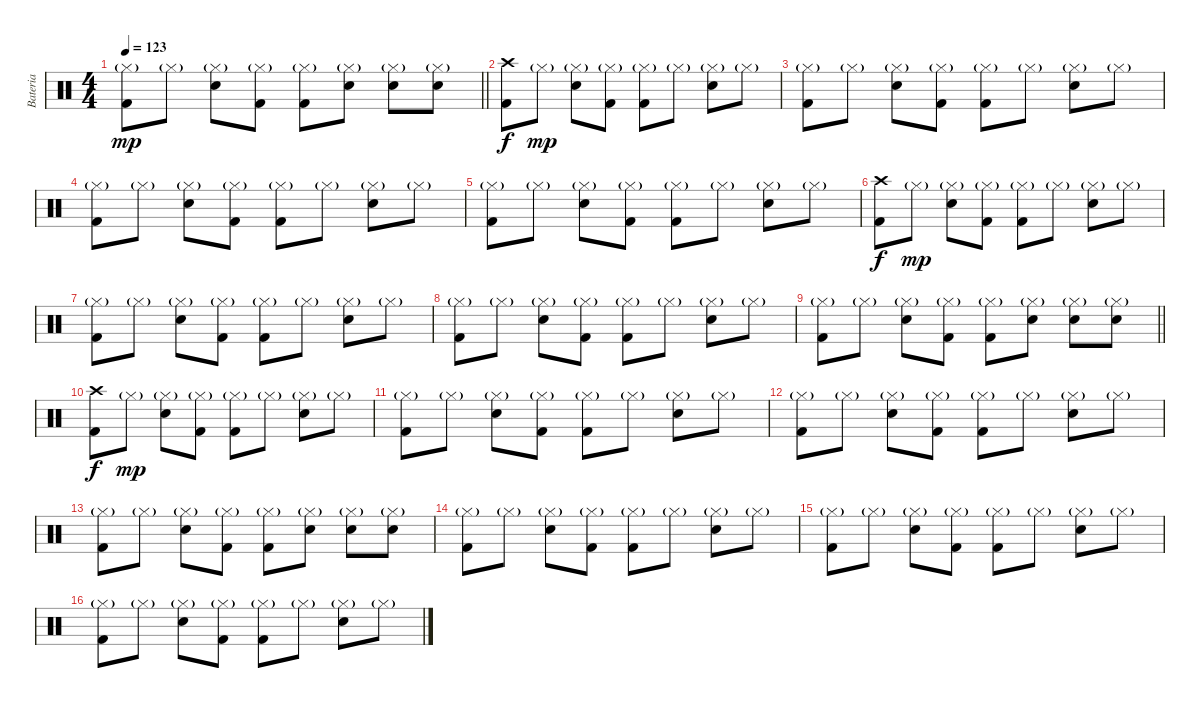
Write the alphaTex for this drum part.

\track ("Bateria" "Bateria") {instrument percussion}
\staff {score}
\articulation defaults
\ts (4 4)
\tempo 123
\clef neutral
\barLineRight lightlight
\ks c
("Hi-Hat (closed)"{g} "Kick (hit) 2").8{dy mp} "Hi-Hat (closed)"{g}.8 ("Hi-Hat (closed)"{g} "Snare (hit) 2").8 ("Hi-Hat (closed)"{g} "Kick (hit) 2").8 ("Hi-Hat (closed)"{g} "Kick (hit) 2").8 ("Hi-Hat (closed)"{g} "Snare (hit) 2").8 ("Hi-Hat (closed)"{g} "Snare (hit) 2").8 ("Hi-Hat (closed)"{g} "Snare (hit) 2").8 |
("Crash high (hit)" "Kick (hit) 2").8{dy f} "Hi-Hat (closed)"{g}.8{dy mp} ("Hi-Hat (closed)"{g} "Snare (hit) 2").8 ("Hi-Hat (closed)"{g} "Kick (hit) 2").8 ("Hi-Hat (closed)"{g} "Kick (hit) 2").8 "Hi-Hat (closed)"{g}.8 ("Hi-Hat (closed)"{g} "Snare (hit) 2").8 "Hi-Hat (closed)"{g}.8 |
("Hi-Hat (closed)"{g} "Kick (hit) 2").8 "Hi-Hat (closed)"{g}.8 ("Hi-Hat (closed)"{g} "Snare (hit) 2").8 ("Hi-Hat (closed)"{g} "Kick (hit) 2").8 ("Hi-Hat (closed)"{g} "Kick (hit) 2").8 "Hi-Hat (closed)"{g}.8 ("Hi-Hat (closed)"{g} "Snare (hit) 2").8 "Hi-Hat (closed)"{g}.8 |
("Hi-Hat (closed)"{g} "Kick (hit) 2").8 "Hi-Hat (closed)"{g}.8 ("Hi-Hat (closed)"{g} "Snare (hit) 2").8 ("Hi-Hat (closed)"{g} "Kick (hit) 2").8 ("Hi-Hat (closed)"{g} "Kick (hit) 2").8 "Hi-Hat (closed)"{g}.8 ("Hi-Hat (closed)"{g} "Snare (hit) 2").8 "Hi-Hat (closed)"{g}.8 |
("Hi-Hat (closed)"{g} "Kick (hit) 2").8 "Hi-Hat (closed)"{g}.8 ("Hi-Hat (closed)"{g} "Snare (hit) 2").8 ("Hi-Hat (closed)"{g} "Kick (hit) 2").8 ("Hi-Hat (closed)"{g} "Kick (hit) 2").8 "Hi-Hat (closed)"{g}.8 ("Hi-Hat (closed)"{g} "Snare (hit) 2").8 "Hi-Hat (closed)"{g}.8 |
("Crash high (hit)" "Kick (hit) 2").8{dy f} "Hi-Hat (closed)"{g}.8{dy mp} ("Hi-Hat (closed)"{g} "Snare (hit) 2").8 ("Hi-Hat (closed)"{g} "Kick (hit) 2").8 ("Hi-Hat (closed)"{g} "Kick (hit) 2").8 "Hi-Hat (closed)"{g}.8 ("Hi-Hat (closed)"{g} "Snare (hit) 2").8 "Hi-Hat (closed)"{g}.8 |
("Hi-Hat (closed)"{g} "Kick (hit) 2").8 "Hi-Hat (closed)"{g}.8 ("Hi-Hat (closed)"{g} "Snare (hit) 2").8 ("Hi-Hat (closed)"{g} "Kick (hit) 2").8 ("Hi-Hat (closed)"{g} "Kick (hit) 2").8 "Hi-Hat (closed)"{g}.8 ("Hi-Hat (closed)"{g} "Snare (hit) 2").8 "Hi-Hat (closed)"{g}.8 |
("Hi-Hat (closed)"{g} "Kick (hit) 2").8 "Hi-Hat (closed)"{g}.8 ("Hi-Hat (closed)"{g} "Snare (hit) 2").8 ("Hi-Hat (closed)"{g} "Kick (hit) 2").8 ("Hi-Hat (closed)"{g} "Kick (hit) 2").8 "Hi-Hat (closed)"{g}.8 ("Hi-Hat (closed)"{g} "Snare (hit) 2").8 "Hi-Hat (closed)"{g}.8 |
\barLineRight lightlight
("Hi-Hat (closed)"{g} "Kick (hit) 2").8 "Hi-Hat (closed)"{g}.8 ("Hi-Hat (closed)"{g} "Snare (hit) 2").8 ("Hi-Hat (closed)"{g} "Kick (hit) 2").8 ("Hi-Hat (closed)"{g} "Kick (hit) 2").8 ("Hi-Hat (closed)"{g} "Snare (hit) 2").8 ("Hi-Hat (closed)"{g} "Snare (hit) 2").8 ("Hi-Hat (closed)"{g} "Snare (hit) 2").8 |
("Crash high (hit)" "Kick (hit) 2").8{dy f} "Hi-Hat (closed)"{g}.8{dy mp} ("Hi-Hat (closed)"{g} "Snare (hit) 2").8 ("Hi-Hat (closed)"{g} "Kick (hit) 2").8 ("Hi-Hat (closed)"{g} "Kick (hit) 2").8 "Hi-Hat (closed)"{g}.8 ("Hi-Hat (closed)"{g} "Snare (hit) 2").8 "Hi-Hat (closed)"{g}.8 |
("Hi-Hat (closed)"{g} "Kick (hit) 2").8 "Hi-Hat (closed)"{g}.8 ("Hi-Hat (closed)"{g} "Snare (hit) 2").8 ("Hi-Hat (closed)"{g} "Kick (hit) 2").8 ("Hi-Hat (closed)"{g} "Kick (hit) 2").8 "Hi-Hat (closed)"{g}.8 ("Hi-Hat (closed)"{g} "Snare (hit) 2").8 "Hi-Hat (closed)"{g}.8 |
("Hi-Hat (closed)"{g} "Kick (hit) 2").8 "Hi-Hat (closed)"{g}.8 ("Hi-Hat (closed)"{g} "Snare (hit) 2").8 ("Hi-Hat (closed)"{g} "Kick (hit) 2").8 ("Hi-Hat (closed)"{g} "Kick (hit) 2").8 "Hi-Hat (closed)"{g}.8 ("Hi-Hat (closed)"{g} "Snare (hit) 2").8 "Hi-Hat (closed)"{g}.8 |
("Hi-Hat (closed)"{g} "Kick (hit) 2").8 "Hi-Hat (closed)"{g}.8 ("Hi-Hat (closed)"{g} "Snare (hit) 2").8 ("Hi-Hat (closed)"{g} "Kick (hit) 2").8 ("Hi-Hat (closed)"{g} "Kick (hit) 2").8 ("Hi-Hat (closed)"{g} "Snare (hit) 2").8 ("Hi-Hat (closed)"{g} "Snare (hit) 2").8 ("Hi-Hat (closed)"{g} "Snare (hit) 2").8 |
("Hi-Hat (closed)"{g} "Kick (hit) 2").8 "Hi-Hat (closed)"{g}.8 ("Hi-Hat (closed)"{g} "Snare (hit) 2").8 ("Hi-Hat (closed)"{g} "Kick (hit) 2").8 ("Hi-Hat (closed)"{g} "Kick (hit) 2").8 "Hi-Hat (closed)"{g}.8 ("Hi-Hat (closed)"{g} "Snare (hit) 2").8 "Hi-Hat (closed)"{g}.8 |
("Hi-Hat (closed)"{g} "Kick (hit) 2").8 "Hi-Hat (closed)"{g}.8 ("Hi-Hat (closed)"{g} "Snare (hit) 2").8 ("Hi-Hat (closed)"{g} "Kick (hit) 2").8 ("Hi-Hat (closed)"{g} "Kick (hit) 2").8 "Hi-Hat (closed)"{g}.8 ("Hi-Hat (closed)"{g} "Snare (hit) 2").8 "Hi-Hat (closed)"{g}.8 |
("Hi-Hat (closed)"{g} "Kick (hit) 2").8 "Hi-Hat (closed)"{g}.8 ("Hi-Hat (closed)"{g} "Snare (hit) 2").8 ("Hi-Hat (closed)"{g} "Kick (hit) 2").8 ("Hi-Hat (closed)"{g} "Kick (hit) 2").8 "Hi-Hat (closed)"{g}.8 ("Hi-Hat (closed)"{g} "Snare (hit) 2").8 "Hi-Hat (closed)"{g}.8
